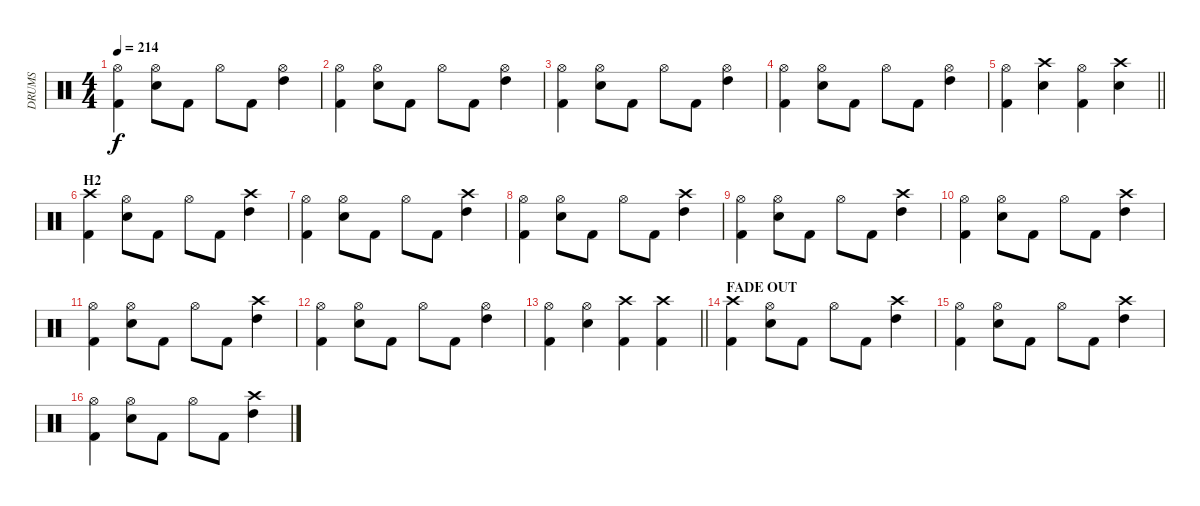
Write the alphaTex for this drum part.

\track ("DRUMS" "DRUMS") {instrument percussion}
\staff {score}
\articulation defaults
\ts (4 4)
\tempo 214
\clef neutral
\ks c
("Hi-Hat (open)" "Kick (hit) 2").4{dy f} ("Hi-Hat (open)" "Snare (hit) 2").8 "Kick (hit) 2".8 "Hi-Hat (open)".8 "Kick (hit) 2".8 ("Hi-Hat (open)" "High Tom (hit)").4 |
("Hi-Hat (open)" "Kick (hit) 2").4 ("Hi-Hat (open)" "Snare (hit) 2").8 "Kick (hit) 2".8 "Hi-Hat (open)".8 "Kick (hit) 2".8 ("Hi-Hat (open)" "High Tom (hit)").4 |
("Hi-Hat (open)" "Kick (hit) 2").4 ("Hi-Hat (open)" "Snare (hit) 2").8 "Kick (hit) 2".8 "Hi-Hat (open)".8 "Kick (hit) 2".8 ("Hi-Hat (open)" "High Tom (hit)").4 |
("Hi-Hat (open)" "Kick (hit) 2").4 ("Hi-Hat (open)" "Snare (hit) 2").8 "Kick (hit) 2".8 "Hi-Hat (open)".8 "Kick (hit) 2".8 ("Hi-Hat (open)" "High Tom (hit)").4 |
\barLineRight lightlight
("Hi-Hat (open)" "Kick (hit) 2").4 ("Crash high (hit)" "Snare (hit) 2").4 ("Hi-Hat (open)" "Kick (hit) 2").4 ("Crash high (hit)" "Snare (hit) 2").4 |
\section ("" "H2")
("Crash high (hit)" "Kick (hit) 2").4 ("Hi-Hat (open)" "Snare (hit) 2").8 "Kick (hit) 2".8 "Hi-Hat (open)".8 "Kick (hit) 2".8 ("Crash high (hit)" "High Tom (hit)").4 |
("Hi-Hat (open)" "Kick (hit) 2").4 ("Hi-Hat (open)" "Snare (hit) 2").8 "Kick (hit) 2".8 "Hi-Hat (open)".8 "Kick (hit) 2".8 ("Crash high (hit)" "High Tom (hit)").4 |
("Hi-Hat (open)" "Kick (hit) 2").4 ("Hi-Hat (open)" "Snare (hit) 2").8 "Kick (hit) 2".8 "Hi-Hat (open)".8 "Kick (hit) 2".8 ("Crash high (hit)" "High Tom (hit)").4 |
("Hi-Hat (open)" "Kick (hit) 2").4 ("Hi-Hat (open)" "Snare (hit) 2").8 "Kick (hit) 2".8 "Hi-Hat (open)".8 "Kick (hit) 2".8 ("Crash high (hit)" "High Tom (hit)").4 |
("Hi-Hat (open)" "Kick (hit) 2").4 ("Hi-Hat (open)" "Snare (hit) 2").8 "Kick (hit) 2".8 "Hi-Hat (open)".8 "Kick (hit) 2".8 ("Crash high (hit)" "High Tom (hit)").4 |
("Hi-Hat (open)" "Kick (hit) 2").4 ("Hi-Hat (open)" "Snare (hit) 2").8 "Kick (hit) 2".8 "Hi-Hat (open)".8 "Kick (hit) 2".8 ("Crash high (hit)" "High Tom (hit)").4 |
("Hi-Hat (open)" "Kick (hit) 2").4 ("Hi-Hat (open)" "Snare (hit) 2").8 "Kick (hit) 2".8 "Hi-Hat (open)".8 "Kick (hit) 2".8 ("Hi-Hat (open)" "High Tom (hit)").4 |
\barLineRight lightlight
("Hi-Hat (open)" "Kick (hit) 2").4 ("Hi-Hat (open)" "Snare (hit) 2").4 ("Crash high (hit)" "Kick (hit) 2").4 ("Crash high (hit)" "Kick (hit) 2").4 |
\section ("" "FADE OUT")
("Crash high (hit)" "Kick (hit) 2").4 ("Hi-Hat (open)" "Snare (hit) 2").8 "Kick (hit) 2".8 "Hi-Hat (open)".8 "Kick (hit) 2".8 ("Crash high (hit)" "High Tom (hit)").4 |
("Hi-Hat (open)" "Kick (hit) 2").4 ("Hi-Hat (open)" "Snare (hit) 2").8 "Kick (hit) 2".8 "Hi-Hat (open)".8 "Kick (hit) 2".8 ("Crash high (hit)" "High Tom (hit)").4 |
("Hi-Hat (open)" "Kick (hit) 2").4 ("Hi-Hat (open)" "Snare (hit) 2").8 "Kick (hit) 2".8 "Hi-Hat (open)".8 "Kick (hit) 2".8 ("Crash high (hit)" "High Tom (hit)").4
